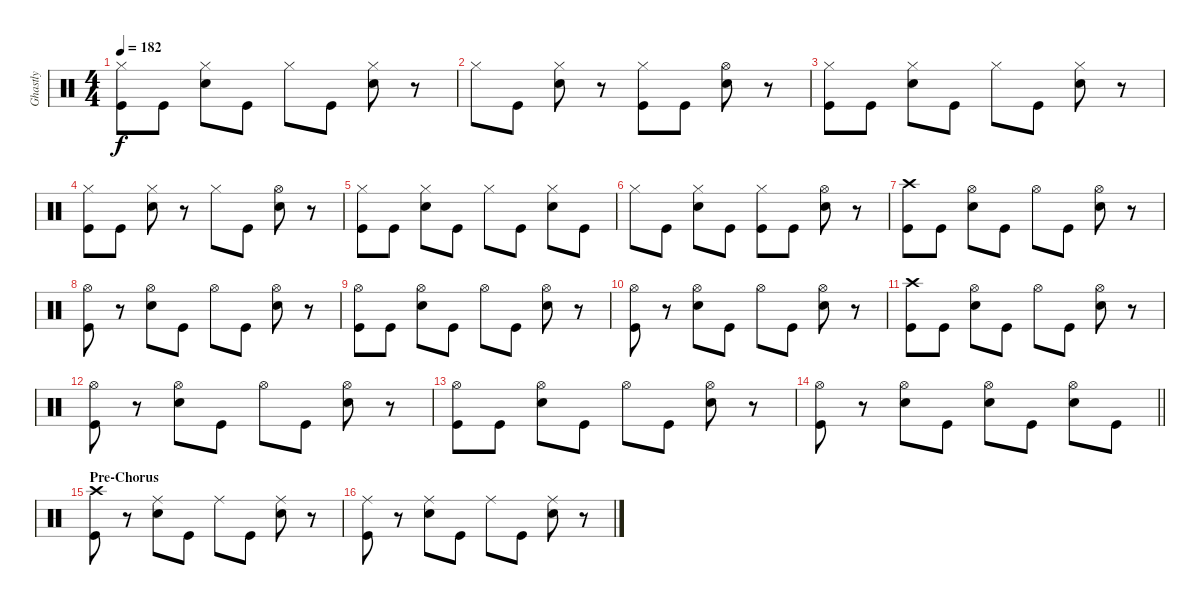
\track ("Ghastly" "Ghastly") {instrument percussion}
\staff {score}
\articulation defaults
\ts (4 4)
\tempo 182
\clef neutral
\ks c
("Hi-Hat (closed)" "Kick (hit)").8{dy f} "Kick (hit)".8 ("Hi-Hat (closed)" "Electric Snare (hit)").8 "Kick (hit)".8 "Hi-Hat (closed)".8 "Kick (hit)".8 ("Hi-Hat (closed)" "Electric Snare (hit)").8 r.8 |
"Hi-Hat (closed)".8 "Kick (hit)".8 ("Hi-Hat (closed)" "Electric Snare (hit)").8 r.8 ("Hi-Hat (closed)" "Kick (hit)").8 "Kick (hit)".8 ("Hi-Hat (open)" "Electric Snare (hit)").8 r.8 |
("Hi-Hat (closed)" "Kick (hit)").8 "Kick (hit)".8 ("Hi-Hat (closed)" "Electric Snare (hit)").8 "Kick (hit)".8 "Hi-Hat (closed)".8 "Kick (hit)".8 ("Hi-Hat (closed)" "Electric Snare (hit)").8 r.8 |
("Hi-Hat (closed)" "Kick (hit)").8 "Kick (hit)".8 ("Hi-Hat (closed)" "Electric Snare (hit)").8 r.8 "Hi-Hat (closed)".8 "Kick (hit)".8 ("Hi-Hat (open)" "Electric Snare (hit)").8 r.8 |
("Hi-Hat (closed)" "Kick (hit)").8 "Kick (hit)".8 ("Hi-Hat (closed)" "Electric Snare (hit)").8 "Kick (hit)".8 "Hi-Hat (closed)".8 "Kick (hit)".8 ("Hi-Hat (closed)" "Electric Snare (hit)").8 "Kick (hit)".8 |
"Hi-Hat (closed)".8 "Kick (hit)".8 ("Hi-Hat (closed)" "Electric Snare (hit)").8 "Kick (hit)".8 ("Hi-Hat (closed)" "Kick (hit)").8 "Kick (hit)".8 ("Hi-Hat (open)" "Electric Snare (hit)").8 r.8 |
("Crash high (hit)" "Kick (hit)").8 "Kick (hit)".8 ("Hi-Hat (open)" "Electric Snare (hit)").8 "Kick (hit)".8 "Hi-Hat (open)".8 "Kick (hit)".8 ("Hi-Hat (open)" "Electric Snare (hit)").8 r.8 |
("Hi-Hat (open)" "Kick (hit)").8 r.8 ("Hi-Hat (open)" "Electric Snare (hit)").8 "Kick (hit)".8 "Hi-Hat (open)".8 "Kick (hit)".8 ("Hi-Hat (open)" "Electric Snare (hit)").8 r.8 |
("Hi-Hat (open)" "Kick (hit)").8 "Kick (hit)".8 ("Hi-Hat (open)" "Electric Snare (hit)").8 "Kick (hit)".8 "Hi-Hat (open)".8 "Kick (hit)".8 ("Hi-Hat (open)" "Electric Snare (hit)").8 r.8 |
("Hi-Hat (open)" "Kick (hit)").8 r.8 ("Hi-Hat (open)" "Electric Snare (hit)").8 "Kick (hit)".8 "Hi-Hat (open)".8 "Kick (hit)".8 ("Hi-Hat (open)" "Electric Snare (hit)").8 r.8 |
("Crash high (hit)" "Kick (hit)").8 "Kick (hit)".8 ("Hi-Hat (open)" "Electric Snare (hit)").8 "Kick (hit)".8 "Hi-Hat (open)".8 "Kick (hit)".8 ("Hi-Hat (open)" "Electric Snare (hit)").8 r.8 |
("Hi-Hat (open)" "Kick (hit)").8 r.8 ("Hi-Hat (open)" "Electric Snare (hit)").8 "Kick (hit)".8 "Hi-Hat (open)".8 "Kick (hit)".8 ("Hi-Hat (open)" "Electric Snare (hit)").8 r.8 |
("Hi-Hat (open)" "Kick (hit)").8 "Kick (hit)".8 ("Hi-Hat (open)" "Electric Snare (hit)").8 "Kick (hit)".8 "Hi-Hat (open)".8 "Kick (hit)".8 ("Hi-Hat (open)" "Electric Snare (hit)").8 r.8 |
\barLineRight lightlight
("Hi-Hat (open)" "Kick (hit)").8 r.8 ("Hi-Hat (open)" "Electric Snare (hit)").8 "Kick (hit)".8 ("Hi-Hat (open)" "Electric Snare (hit)").8 "Kick (hit)".8 ("Hi-Hat (open)" "Electric Snare (hit)").8 "Kick (hit)".8 |
\section ("" "Pre-Chorus")
("Crash high (hit)" "Kick (hit)").8 r.8 ("Ride (middle)" "Electric Snare (hit)").8 "Kick (hit)".8 "Ride (middle)".8 "Kick (hit)".8 ("Ride (middle)" "Electric Snare (hit)").8 r.8 |
("Ride (middle)" "Kick (hit)").8 r.8 ("Ride (middle)" "Electric Snare (hit)").8 "Kick (hit)".8 "Ride (middle)".8 "Kick (hit)".8 ("Ride (middle)" "Electric Snare (hit)").8 r.8
